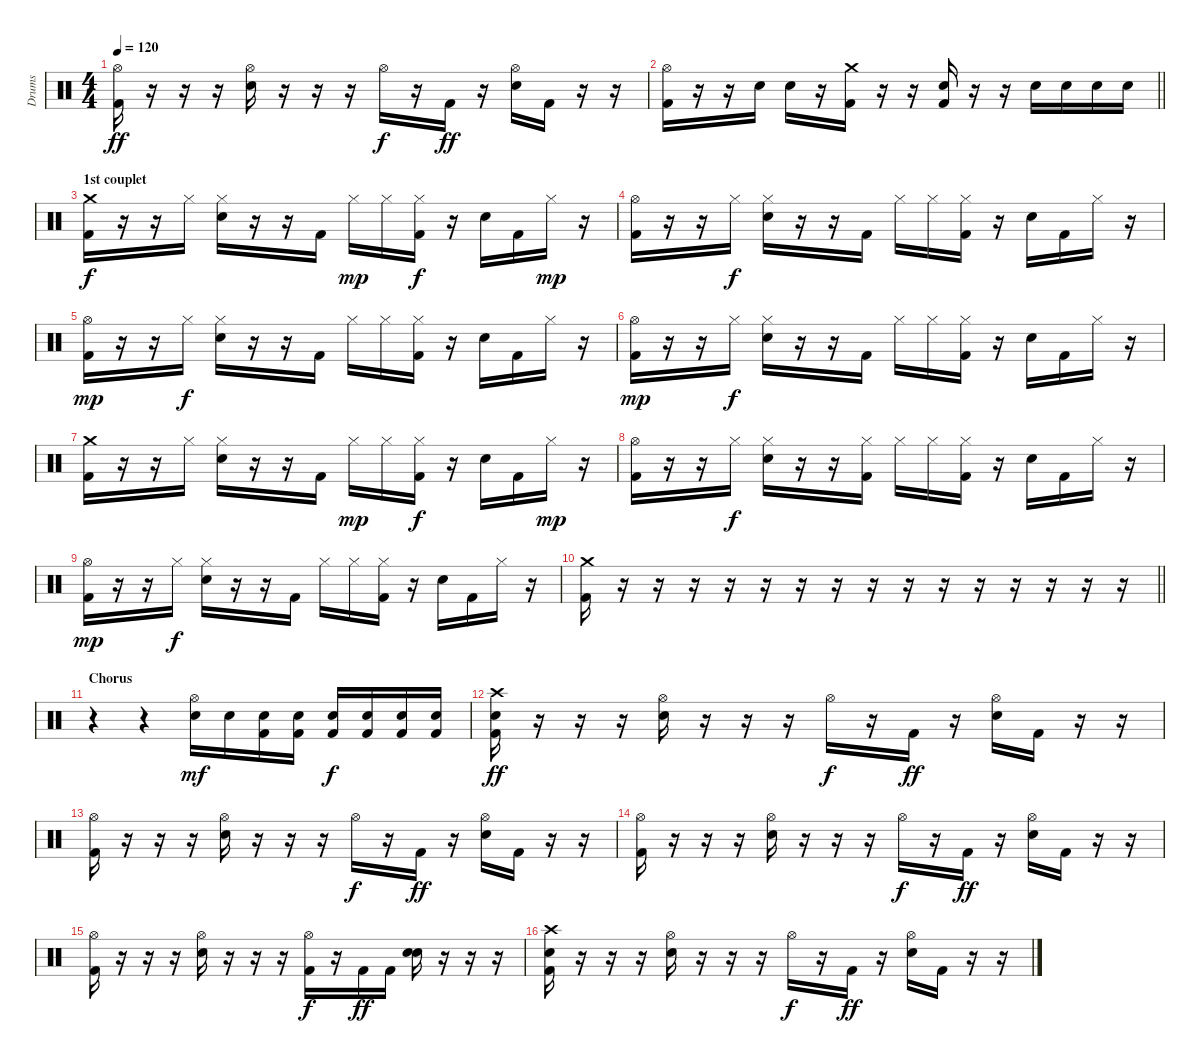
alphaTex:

\track ("Drums" "Drums") {instrument percussion}
\staff {score}
\articulation defaults
\ts (4 4)
\tempo 120
\clef neutral
\ks c
("Hi-Hat (open)" "Kick (hit) 2").16{dy ff} r.16 r.16 r.16 ("Hi-Hat (open)" "Electric Snare (hit)").16 r.16 r.16 r.16 "Hi-Hat (open)".16{dy f} r.16 "Kick (hit) 2".16{dy ff} r.16 ("Hi-Hat (open)" "Electric Snare (hit)").16 "Kick (hit) 2".16 r.16 r.16 |
\barLineRight lightlight
("Hi-Hat (open)" "Kick (hit) 2").16 r.16 r.16 "Electric Snare (hit)".16 "Electric Snare (hit)".16 r.16 ("Crash medium (hit)" "Kick (hit) 2").16 r.16 r.16 ("Electric Snare (hit)" "Kick (hit) 2").16 r.16 r.16 "Electric Snare (hit)".16 "Electric Snare (hit)".16 "Electric Snare (hit)".16 "Electric Snare (hit)".16 |
\section ("" "1st couplet")
("Crash medium (hit)" "Kick (hit) 2").16{dy f} r.16 r.16 "Hi-Hat (closed)".16 ("Hi-Hat (closed)" "Electric Snare (hit)").16 r.16 r.16 "Kick (hit) 2".16 "Hi-Hat (closed)".16{dy mp} "Hi-Hat (closed)".16 ("Hi-Hat (closed)" "Kick (hit) 2").16{dy f} r.16 "Electric Snare (hit)".16 "Kick (hit) 2".16 "Hi-Hat (closed)".16{dy mp} r.16 |
("Hi-Hat (open)" "Kick (hit) 2").16 r.16 r.16 "Hi-Hat (closed)".16{dy f} ("Hi-Hat (closed)" "Electric Snare (hit)").16 r.16 r.16 "Kick (hit) 2".16 "Hi-Hat (closed)".16 "Hi-Hat (closed)".16 ("Hi-Hat (closed)" "Kick (hit) 2").16 r.16 "Electric Snare (hit)".16 "Kick (hit) 2".16 "Hi-Hat (closed)".16 r.16 |
("Hi-Hat (open)" "Kick (hit) 2").16{dy mp} r.16 r.16 "Hi-Hat (closed)".16{dy f} ("Hi-Hat (closed)" "Electric Snare (hit)").16 r.16 r.16 "Kick (hit) 2".16 "Hi-Hat (closed)".16 "Hi-Hat (closed)".16 ("Hi-Hat (closed)" "Kick (hit) 2").16 r.16 "Electric Snare (hit)".16 "Kick (hit) 2".16 "Hi-Hat (closed)".16 r.16 |
("Hi-Hat (open)" "Kick (hit) 2").16{dy mp} r.16 r.16 "Hi-Hat (closed)".16{dy f} ("Hi-Hat (closed)" "Electric Snare (hit)").16 r.16 r.16 "Kick (hit) 2".16 "Hi-Hat (closed)".16 "Hi-Hat (closed)".16 ("Hi-Hat (closed)" "Kick (hit) 2").16 r.16 "Electric Snare (hit)".16 "Kick (hit) 2".16 "Hi-Hat (closed)".16 r.16 |
("Crash medium (hit)" "Kick (hit) 2").16 r.16 r.16 "Hi-Hat (closed)".16 ("Hi-Hat (closed)" "Electric Snare (hit)").16 r.16 r.16 "Kick (hit) 2".16 "Hi-Hat (closed)".16{dy mp} "Hi-Hat (closed)".16 ("Hi-Hat (closed)" "Kick (hit) 2").16{dy f} r.16 "Electric Snare (hit)".16 "Kick (hit) 2".16 "Hi-Hat (closed)".16{dy mp} r.16 |
("Hi-Hat (open)" "Kick (hit) 2").16 r.16 r.16 "Hi-Hat (closed)".16{dy f} ("Hi-Hat (closed)" "Electric Snare (hit)").16 r.16 r.16 ("Hi-Hat (closed)" "Kick (hit) 2").16 "Hi-Hat (closed)".16 "Hi-Hat (closed)".16 ("Hi-Hat (closed)" "Kick (hit) 2").16 r.16 "Electric Snare (hit)".16 "Kick (hit) 2".16 "Hi-Hat (closed)".16 r.16 |
("Hi-Hat (open)" "Kick (hit) 2").16{dy mp} r.16 r.16 "Hi-Hat (closed)".16{dy f} ("Hi-Hat (closed)" "Electric Snare (hit)").16 r.16 r.16 "Kick (hit) 2".16 "Hi-Hat (closed)".16 "Hi-Hat (closed)".16 ("Hi-Hat (closed)" "Kick (hit) 2").16 r.16 "Electric Snare (hit)".16 "Kick (hit) 2".16 "Hi-Hat (closed)".16 r.16 |
\barLineRight lightlight
("Crash medium (hit)" "Kick (hit) 2").16 r.16 r.16 r.16 r.16 r.16 r.16 r.16 r.16 r.16 r.16 r.16 r.16 r.16 r.16 r.16 |
\section ("" "Chorus")
r.4 r.4 ("Hi-Hat (open)" "Electric Snare (hit)").16{dy mf} "Electric Snare (hit)".16 ("Kick (hit) 2" "Electric Snare (hit)").16 ("Kick (hit) 2" "Electric Snare (hit)").16 ("Kick (hit) 2" "Electric Snare (hit)").16{dy f} ("Kick (hit) 2" "Electric Snare (hit)").16 ("Kick (hit) 2" "Electric Snare (hit)").16 ("Kick (hit) 2" "Electric Snare (hit)").16 |
("Crash high (hit)" "Electric Snare (hit)" "Kick (hit) 2").16{dy ff} r.16 r.16 r.16 ("Hi-Hat (open)" "Electric Snare (hit)").16 r.16 r.16 r.16 "Hi-Hat (open)".16{dy f} r.16 "Kick (hit) 2".16{dy ff} r.16 ("Hi-Hat (open)" "Electric Snare (hit)").16 "Kick (hit) 2".16 r.16 r.16 |
("Hi-Hat (open)" "Kick (hit) 2").16 r.16 r.16 r.16 ("Hi-Hat (open)" "Electric Snare (hit)").16 r.16 r.16 r.16 "Hi-Hat (open)".16{dy f} r.16 "Kick (hit) 2".16{dy ff} r.16 ("Hi-Hat (open)" "Electric Snare (hit)").16 "Kick (hit) 2".16 r.16 r.16 |
("Hi-Hat (open)" "Kick (hit) 2").16 r.16 r.16 r.16 ("Hi-Hat (open)" "Electric Snare (hit)").16 r.16 r.16 r.16 "Hi-Hat (open)".16{dy f} r.16 "Kick (hit) 2".16{dy ff} r.16 ("Hi-Hat (open)" "Electric Snare (hit)").16 "Kick (hit) 2".16 r.16 r.16 |
("Hi-Hat (open)" "Kick (hit) 2").16 r.16 r.16 r.16 ("Hi-Hat (open)" "Electric Snare (hit)").16 r.16 r.16 r.16 ("Hi-Hat (open)" "Kick (hit) 2").16{dy f} r.16 "Kick (hit) 2".16{dy ff} "Kick (hit) 2".16 ("Snare (hit) 2" "Electric Snare (hit)").16 r.16 r.16 r.16 |
("Crash high (hit)" "Electric Snare (hit)" "Kick (hit) 2").16 r.16 r.16 r.16 ("Hi-Hat (open)" "Electric Snare (hit)").16 r.16 r.16 r.16 "Hi-Hat (open)".16{dy f} r.16 "Kick (hit) 2".16{dy ff} r.16 ("Hi-Hat (open)" "Electric Snare (hit)").16 "Kick (hit) 2".16 r.16 r.16
